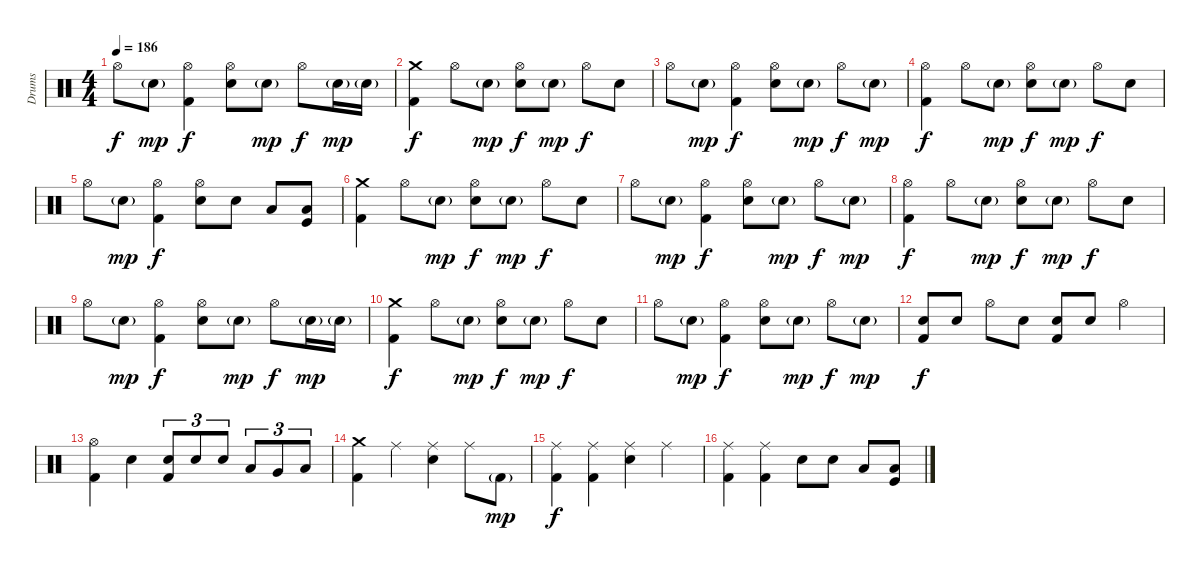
\track ("Drums" "Drums") {instrument percussion}
\staff {score}
\articulation defaults
\ts (4 4)
\tempo 186
\clef neutral
\ks c "Hi-Hat (open)".8{dy f} "Electric Snare (hit)"{g}.8{dy mp}
("Hi-Hat (open)" "Kick (hit) 2").4{dy f} ("Hi-Hat (open)" "Electric Snare (hit)").8 "Electric Snare (hit)"{g}.8{dy mp} "Hi-Hat (open)".8{dy f} "Electric Snare (hit)"{g}.16{dy mp} "Electric Snare (hit)"{g}.16 |
("Crash medium (hit)" "Kick (hit) 2").4{dy f} "Hi-Hat (open)".8 "Electric Snare (hit)"{g}.8{dy mp} ("Hi-Hat (open)" "Electric Snare (hit)").8{dy f} "Electric Snare (hit)"{g}.8{dy mp} "Hi-Hat (open)".8{dy f} "Electric Snare (hit)".8 |
"Hi-Hat (open)".8 "Electric Snare (hit)"{g}.8{dy mp} ("Hi-Hat (open)" "Kick (hit) 2").4{dy f} ("Hi-Hat (open)" "Electric Snare (hit)").8 "Electric Snare (hit)"{g}.8{dy mp} "Hi-Hat (open)".8{dy f} "Electric Snare (hit)"{g}.8{dy mp} |
("Hi-Hat (open)" "Kick (hit) 2").4{dy f} "Hi-Hat (open)".8 "Electric Snare (hit)"{g}.8{dy mp} ("Hi-Hat (open)" "Electric Snare (hit)").8{dy f} "Electric Snare (hit)"{g}.8{dy mp} "Hi-Hat (open)".8{dy f} "Electric Snare (hit)".8 |
"Hi-Hat (open)".8 "Electric Snare (hit)"{g}.8{dy mp} ("Hi-Hat (open)" "Kick (hit) 2").4{dy f} ("Hi-Hat (open)" "Electric Snare (hit)").8 "Electric Snare (hit)".8 "Low Tom (hit)".8 ("Low Floor Tom (hit)" "Kick (hit)").8 |
("Crash medium (hit)" "Kick (hit) 2").4 "Hi-Hat (open)".8 "Electric Snare (hit)"{g}.8{dy mp} ("Hi-Hat (open)" "Electric Snare (hit)").8{dy f} "Electric Snare (hit)"{g}.8{dy mp} "Hi-Hat (open)".8{dy f} "Electric Snare (hit)".8 |
"Hi-Hat (open)".8 "Electric Snare (hit)"{g}.8{dy mp} ("Hi-Hat (open)" "Kick (hit) 2").4{dy f} ("Hi-Hat (open)" "Electric Snare (hit)").8 "Electric Snare (hit)"{g}.8{dy mp} "Hi-Hat (open)".8{dy f} "Electric Snare (hit)"{g}.8{dy mp} |
("Hi-Hat (open)" "Kick (hit) 2").4{dy f} "Hi-Hat (open)".8 "Electric Snare (hit)"{g}.8{dy mp} ("Hi-Hat (open)" "Electric Snare (hit)").8{dy f} "Electric Snare (hit)"{g}.8{dy mp} "Hi-Hat (open)".8{dy f} "Electric Snare (hit)".8 |
"Hi-Hat (open)".8 "Electric Snare (hit)"{g}.8{dy mp} ("Hi-Hat (open)" "Kick (hit) 2").4{dy f} ("Hi-Hat (open)" "Electric Snare (hit)").8 "Electric Snare (hit)"{g}.8{dy mp} "Hi-Hat (open)".8{dy f} "Electric Snare (hit)"{g}.16{dy mp} "Electric Snare (hit)"{g}.16 |
("Crash medium (hit)" "Kick (hit) 2").4{dy f} "Hi-Hat (open)".8 "Electric Snare (hit)"{g}.8{dy mp} ("Hi-Hat (open)" "Electric Snare (hit)").8{dy f} "Electric Snare (hit)"{g}.8{dy mp} "Hi-Hat (open)".8{dy f} "Electric Snare (hit)".8 |
"Hi-Hat (open)".8 "Electric Snare (hit)"{g}.8{dy mp} ("Hi-Hat (open)" "Kick (hit) 2").4{dy f} ("Hi-Hat (open)" "Electric Snare (hit)").8 "Electric Snare (hit)"{g}.8{dy mp} "Hi-Hat (open)".8{dy f} "Electric Snare (hit)"{g}.8{dy mp} |
("Electric Snare (hit)" "Kick (hit) 2").8{dy f} "Electric Snare (hit)".8 "Hi-Hat (open)".8 "Electric Snare (hit)".8 ("Electric Snare (hit)" "Kick (hit) 2").8 "Electric Snare (hit)".8 "Hi-Hat (open)".4 |
("Hi-Hat (open)" "Kick (hit) 2").4 "Electric Snare (hit)".4 ("Electric Snare (hit)" "Kick (hit) 2").8{tu (3 2)} "Electric Snare (hit)".8{tu (3 2)} "Electric Snare (hit)".8{tu (3 2)} "Low Tom (hit)".8{tu (3 2)} "Very Low Tom (hit)".8{tu (3 2)} "Low Floor Tom (hit)".8{tu (3 2)} |
("Crash medium (hit)" "Kick (hit) 2").4 "Ride (middle)".4 ("Ride (middle)" "Electric Snare (hit)").4 "Ride (middle)".8 "Kick (hit) 2"{g}.8{dy mp} |
("Ride (middle)" "Kick (hit) 2").4{dy f} ("Ride (middle)" "Kick (hit) 2").4 ("Ride (middle)" "Electric Snare (hit)").4 "Ride (middle)".4 |
("Ride (middle)" "Kick (hit) 2").4 ("Ride (middle)" "Kick (hit) 2").4 "Electric Snare (hit)".8 "Electric Snare (hit)".8 "Low Tom (hit)".8 ("Low Floor Tom (hit)" "Kick (hit)").8
